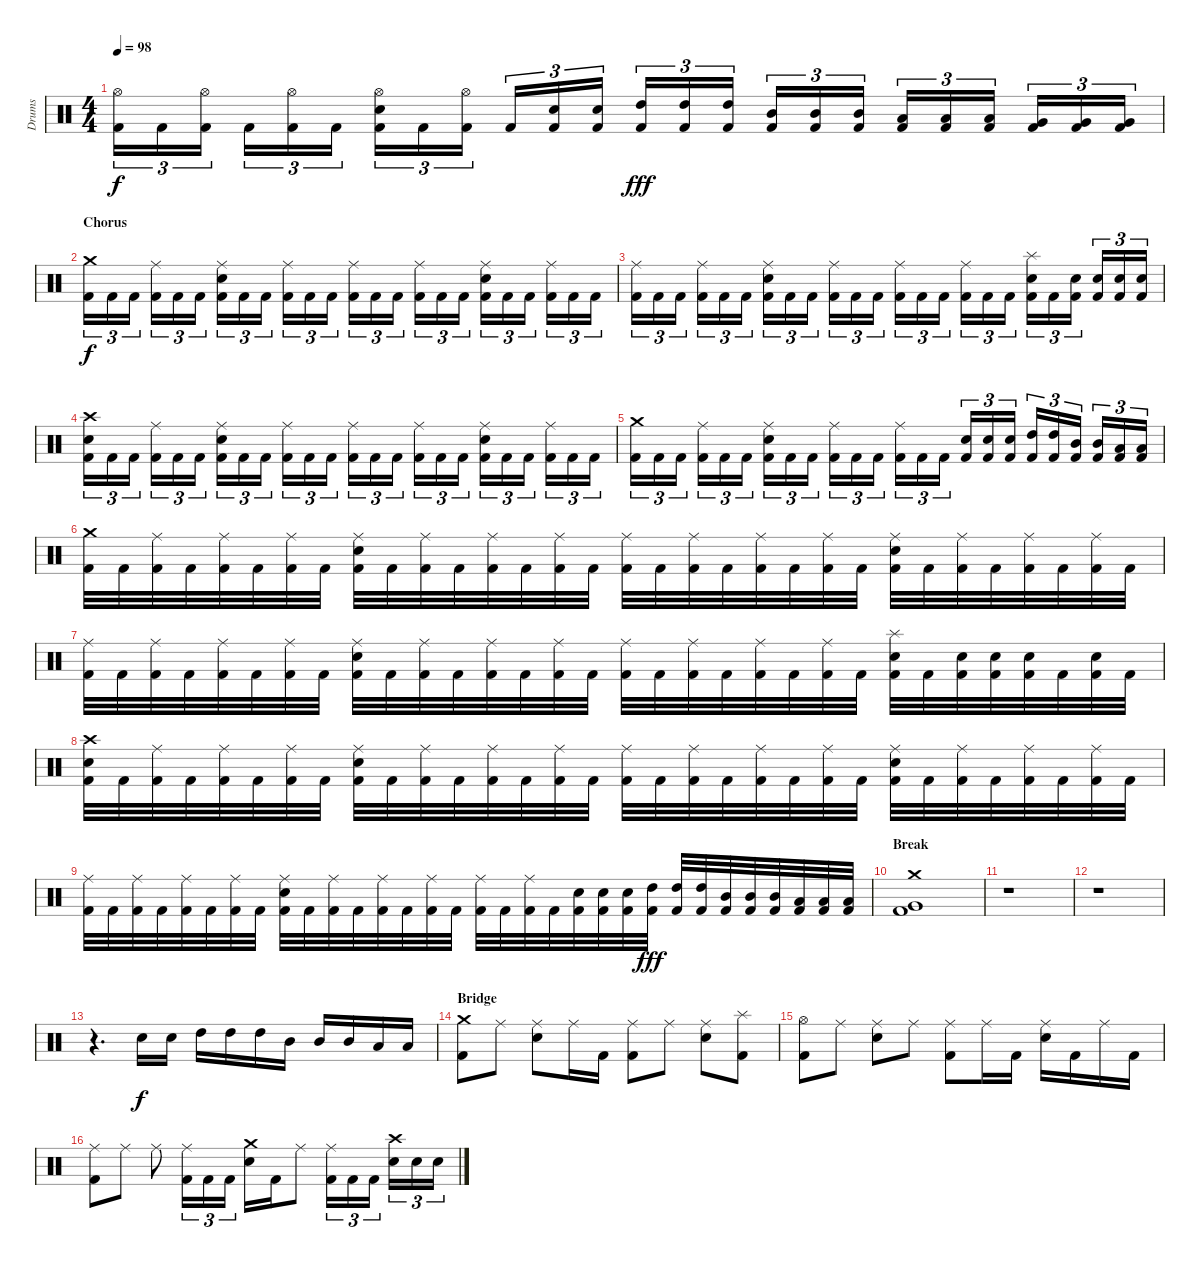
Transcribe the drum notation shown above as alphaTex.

\track ("Drums" "Drums") {instrument percussion}
\staff {score}
\articulation defaults
\ts (4 4)
\tempo 98
\clef neutral
\ks c
("Kick (hit) 2" "Hi-Hat (open)").16{tu (3 2) dy f} "Kick (hit) 2".16{tu (3 2)} ("Kick (hit) 2" "Hi-Hat (open)").16{tu (3 2)} "Kick (hit) 2".16{tu (3 2)} ("Kick (hit) 2" "Hi-Hat (open)").16{tu (3 2)} "Kick (hit) 2".16{tu (3 2)} ("Kick (hit) 2" "Electric Snare (hit)" "Hi-Hat (open)").16{tu (3 2)} "Kick (hit) 2".16{tu (3 2)} ("Kick (hit) 2" "Hi-Hat (open)").16{tu (3 2)} "Kick (hit) 2".16{tu (3 2)} ("Kick (hit) 2" "Electric Snare (hit)").16{tu (3 2)} ("Kick (hit) 2" "Electric Snare (hit)").16{tu (3 2)} ("Kick (hit) 2" "High Tom (hit)").16{tu (3 2) dy fff} ("Kick (hit) 2" "High Tom (hit)").16{tu (3 2)} ("Kick (hit) 2" "High Tom (hit)").16{tu (3 2)} ("Kick (hit) 2" "Mid Tom (hit)").16{tu (3 2)} ("Kick (hit) 2" "Mid Tom (hit)").16{tu (3 2)} ("Kick (hit) 2" "Mid Tom (hit)").16{tu (3 2)} ("Kick (hit) 2" "Low Tom (hit)").16{tu (3 2)} ("Kick (hit) 2" "Low Tom (hit)").16{tu (3 2)} ("Kick (hit) 2" "Low Tom (hit)").16{tu (3 2)} ("Kick (hit) 2" "Very Low Tom (hit)").16{tu (3 2)} ("Kick (hit) 2" "Very Low Tom (hit)").16{tu (3 2)} ("Kick (hit) 2" "Very Low Tom (hit)").16{tu (3 2)} |
\section ("" "Chorus")
("Kick (hit) 2" "Crash medium (hit)").16{tu (3 2) dy f} "Kick (hit) 2".16{tu (3 2)} "Kick (hit) 2".16{tu (3 2)} ("Kick (hit) 2" "Ride (middle)").16{tu (3 2)} "Kick (hit) 2".16{tu (3 2)} "Kick (hit) 2".16{tu (3 2)} ("Kick (hit) 2" "Electric Snare (hit)" "Ride (middle)").16{tu (3 2)} "Kick (hit) 2".16{tu (3 2)} "Kick (hit) 2".16{tu (3 2)} ("Kick (hit) 2" "Ride (middle)").16{tu (3 2)} "Kick (hit) 2".16{tu (3 2)} "Kick (hit) 2".16{tu (3 2)} ("Kick (hit) 2" "Ride (middle)").16{tu (3 2)} "Kick (hit) 2".16{tu (3 2)} "Kick (hit) 2".16{tu (3 2)} ("Kick (hit) 2" "Ride (middle)").16{tu (3 2)} "Kick (hit) 2".16{tu (3 2)} "Kick (hit) 2".16{tu (3 2)} ("Kick (hit) 2" "Electric Snare (hit)" "Ride (middle)").16{tu (3 2)} "Kick (hit) 2".16{tu (3 2)} "Kick (hit) 2".16{tu (3 2)} ("Kick (hit) 2" "Ride (middle)").16{tu (3 2)} "Kick (hit) 2".16{tu (3 2)} "Kick (hit) 2".16{tu (3 2)} |
("Kick (hit) 2" "Ride (middle)").16{tu (3 2)} "Kick (hit) 2".16{tu (3 2)} "Kick (hit) 2".16{tu (3 2)} ("Kick (hit) 2" "Ride (middle)").16{tu (3 2)} "Kick (hit) 2".16{tu (3 2)} "Kick (hit) 2".16{tu (3 2)} ("Kick (hit) 2" "Electric Snare (hit)" "Ride (middle)").16{tu (3 2)} "Kick (hit) 2".16{tu (3 2)} "Kick (hit) 2".16{tu (3 2)} ("Kick (hit) 2" "Ride (middle)").16{tu (3 2)} "Kick (hit) 2".16{tu (3 2)} "Kick (hit) 2".16{tu (3 2)} ("Kick (hit) 2" "Ride (middle)").16{tu (3 2)} "Kick (hit) 2".16{tu (3 2)} "Kick (hit) 2".16{tu (3 2)} ("Kick (hit) 2" "Ride (middle)").16{tu (3 2)} "Kick (hit) 2".16{tu (3 2)} "Kick (hit) 2".16{tu (3 2)} ("Kick (hit) 2" "Electric Snare (hit)" "Splash (hit)").16{tu (3 2)} "Kick (hit) 2".16{tu (3 2)} ("Kick (hit) 2" "Electric Snare (hit)").16{tu (3 2)} ("Kick (hit) 2" "Electric Snare (hit)").16{tu (3 2)} ("Kick (hit) 2" "Electric Snare (hit)").16{tu (3 2)} ("Kick (hit) 2" "Electric Snare (hit)").16{tu (3 2)} |
("Kick (hit) 2" "Electric Snare (hit)" "Crash high (hit)").16{tu (3 2)} "Kick (hit) 2".16{tu (3 2)} "Kick (hit) 2".16{tu (3 2)} ("Kick (hit) 2" "Ride (middle)").16{tu (3 2)} "Kick (hit) 2".16{tu (3 2)} "Kick (hit) 2".16{tu (3 2)} ("Kick (hit) 2" "Electric Snare (hit)" "Ride (middle)").16{tu (3 2)} "Kick (hit) 2".16{tu (3 2)} "Kick (hit) 2".16{tu (3 2)} ("Kick (hit) 2" "Ride (middle)").16{tu (3 2)} "Kick (hit) 2".16{tu (3 2)} "Kick (hit) 2".16{tu (3 2)} ("Kick (hit) 2" "Ride (middle)").16{tu (3 2)} "Kick (hit) 2".16{tu (3 2)} "Kick (hit) 2".16{tu (3 2)} ("Kick (hit) 2" "Ride (middle)").16{tu (3 2)} "Kick (hit) 2".16{tu (3 2)} "Kick (hit) 2".16{tu (3 2)} ("Kick (hit) 2" "Electric Snare (hit)" "Ride (middle)").16{tu (3 2)} "Kick (hit) 2".16{tu (3 2)} "Kick (hit) 2".16{tu (3 2)} ("Kick (hit) 2" "Ride (middle)").16{tu (3 2)} "Kick (hit) 2".16{tu (3 2)} "Kick (hit) 2".16{tu (3 2)} |
("Kick (hit) 2" "Crash medium (hit)").16{tu (3 2)} "Kick (hit) 2".16{tu (3 2)} "Kick (hit) 2".16{tu (3 2)} ("Kick (hit) 2" "Ride (middle)").16{tu (3 2)} "Kick (hit) 2".16{tu (3 2)} "Kick (hit) 2".16{tu (3 2)} ("Kick (hit) 2" "Electric Snare (hit)" "Ride (middle)").16{tu (3 2)} "Kick (hit) 2".16{tu (3 2)} "Kick (hit) 2".16{tu (3 2)} ("Kick (hit) 2" "Ride (middle)").16{tu (3 2)} "Kick (hit) 2".16{tu (3 2)} "Kick (hit) 2".16{tu (3 2)} ("Kick (hit) 2" "Ride (middle)").16{tu (3 2)} "Kick (hit) 2".16{tu (3 2)} "Kick (hit) 2".16{tu (3 2)} ("Kick (hit) 2" "Electric Snare (hit)").16{tu (3 2)} ("Kick (hit) 2" "Electric Snare (hit)").16{tu (3 2)} ("Kick (hit) 2" "Electric Snare (hit)").16{tu (3 2)} ("Kick (hit) 2" "High Tom (hit)").16{tu (3 2)} ("Kick (hit) 2" "High Tom (hit)").16{tu (3 2)} ("Kick (hit) 2" "Mid Tom (hit)").16{tu (3 2)} ("Kick (hit) 2" "Mid Tom (hit)").16{tu (3 2)} ("Kick (hit) 2" "Low Tom (hit)").16{tu (3 2)} ("Kick (hit) 2" "Low Tom (hit)").16{tu (3 2)} |
("Kick (hit) 2" "Crash medium (hit)").32 "Kick (hit) 2".32 ("Kick (hit) 2" "Ride (middle)").32 "Kick (hit) 2".32 ("Kick (hit) 2" "Ride (middle)").32 "Kick (hit) 2".32 ("Kick (hit) 2" "Ride (middle)").32 "Kick (hit) 2".32 ("Kick (hit) 2" "Electric Snare (hit)" "Ride (middle)").32 "Kick (hit) 2".32 ("Kick (hit) 2" "Ride (middle)").32 "Kick (hit) 2".32 ("Kick (hit) 2" "Ride (middle)").32 "Kick (hit) 2".32 ("Kick (hit) 2" "Ride (middle)").32 "Kick (hit) 2".32 ("Kick (hit) 2" "Ride (middle)").32 "Kick (hit) 2".32 ("Kick (hit) 2" "Ride (middle)").32 "Kick (hit) 2".32 ("Kick (hit) 2" "Ride (middle)").32 "Kick (hit) 2".32 ("Kick (hit) 2" "Ride (middle)").32 "Kick (hit) 2".32 ("Kick (hit) 2" "Electric Snare (hit)" "Ride (middle)").32 "Kick (hit) 2".32 ("Kick (hit) 2" "Ride (middle)").32 "Kick (hit) 2".32 ("Kick (hit) 2" "Ride (middle)").32 "Kick (hit) 2".32 ("Kick (hit) 2" "Ride (middle)").32 "Kick (hit) 2".32 |
("Kick (hit) 2" "Ride (middle)").32 "Kick (hit) 2".32 ("Kick (hit) 2" "Ride (middle)").32 "Kick (hit) 2".32 ("Kick (hit) 2" "Ride (middle)").32 "Kick (hit) 2".32 ("Kick (hit) 2" "Ride (middle)").32 "Kick (hit) 2".32 ("Kick (hit) 2" "Electric Snare (hit)" "Ride (middle)").32 "Kick (hit) 2".32 ("Kick (hit) 2" "Ride (middle)").32 "Kick (hit) 2".32 ("Kick (hit) 2" "Ride (middle)").32 "Kick (hit) 2".32 ("Kick (hit) 2" "Ride (middle)").32 "Kick (hit) 2".32 ("Kick (hit) 2" "Ride (middle)").32 "Kick (hit) 2".32 ("Kick (hit) 2" "Ride (middle)").32 "Kick (hit) 2".32 ("Kick (hit) 2" "Ride (middle)").32 "Kick (hit) 2".32 ("Kick (hit) 2" "Ride (middle)").32 "Kick (hit) 2".32 ("Kick (hit) 2" "Electric Snare (hit)" "Splash (hit)").32 "Kick (hit) 2".32 ("Kick (hit) 2" "Electric Snare (hit)").32 ("Kick (hit) 2" "Electric Snare (hit)").32 ("Kick (hit) 2" "Electric Snare (hit)").32 "Kick (hit) 2".32 ("Kick (hit) 2" "Electric Snare (hit)").32 "Kick (hit) 2".32 |
("Kick (hit) 2" "Electric Snare (hit)" "Crash high (hit)").32 "Kick (hit) 2".32 ("Kick (hit) 2" "Ride (middle)").32 "Kick (hit) 2".32 ("Kick (hit) 2" "Ride (middle)").32 "Kick (hit) 2".32 ("Kick (hit) 2" "Ride (middle)").32 "Kick (hit) 2".32 ("Kick (hit) 2" "Electric Snare (hit)" "Ride (middle)").32 "Kick (hit) 2".32 ("Kick (hit) 2" "Ride (middle)").32 "Kick (hit) 2".32 ("Kick (hit) 2" "Ride (middle)").32 "Kick (hit) 2".32 ("Kick (hit) 2" "Ride (middle)").32 "Kick (hit) 2".32 ("Kick (hit) 2" "Ride (middle)").32 "Kick (hit) 2".32 ("Kick (hit) 2" "Ride (middle)").32 "Kick (hit) 2".32 ("Kick (hit) 2" "Ride (middle)").32 "Kick (hit) 2".32 ("Kick (hit) 2" "Ride (middle)").32 "Kick (hit) 2".32 ("Kick (hit) 2" "Electric Snare (hit)" "Ride (middle)").32 "Kick (hit) 2".32 ("Kick (hit) 2" "Ride (middle)").32 "Kick (hit) 2".32 ("Kick (hit) 2" "Ride (middle)").32 "Kick (hit) 2".32 ("Kick (hit) 2" "Ride (middle)").32 "Kick (hit) 2".32 |
("Kick (hit) 2" "Ride (middle)").32 "Kick (hit) 2".32 ("Kick (hit) 2" "Ride (middle)").32 "Kick (hit) 2".32 ("Kick (hit) 2" "Ride (middle)").32 "Kick (hit) 2".32 ("Kick (hit) 2" "Ride (middle)").32 "Kick (hit) 2".32 ("Kick (hit) 2" "Electric Snare (hit)" "Ride (middle)").32 "Kick (hit) 2".32 ("Kick (hit) 2" "Ride (middle)").32 "Kick (hit) 2".32 ("Kick (hit) 2" "Ride (middle)").32 "Kick (hit) 2".32 ("Kick (hit) 2" "Ride (middle)").32 "Kick (hit) 2".32 ("Kick (hit) 2" "Ride (middle)").32 "Kick (hit) 2".32 ("Kick (hit) 2" "Ride (middle)").32 "Kick (hit) 2".32 ("Kick (hit) 2" "Electric Snare (hit)").32 ("Kick (hit) 2" "Electric Snare (hit)").32 ("Kick (hit) 2" "Electric Snare (hit)").32 ("Kick (hit) 2" "High Tom (hit)").32{dy fff} ("Kick (hit) 2" "High Tom (hit)").32 ("Kick (hit) 2" "High Tom (hit)").32 ("Kick (hit) 2" "Mid Tom (hit)").32 ("Kick (hit) 2" "Mid Tom (hit)").32 ("Kick (hit) 2" "Mid Tom (hit)").32 ("Kick (hit) 2" "Low Tom (hit)").32 ("Kick (hit) 2" "Low Tom (hit)").32 ("Kick (hit) 2" "Low Tom (hit)").32 |
\section ("" "Break")
("Kick (hit) 2" "Very Low Tom (hit)" "Crash medium (hit)").1 |
r.1 |
r.1 |
r.4{d} "Electric Snare (hit)".16{dy f} "Electric Snare (hit)".16 "High Tom (hit)".16 "High Tom (hit)".16 "High Tom (hit)".16 "Mid Tom (hit)".16 "Mid Tom (hit)".16 "Mid Tom (hit)".16 "Low Tom (hit)".16 "Low Tom (hit)".16 |
\section ("" "Bridge")
("Kick (hit) 2" "Crash medium (hit)").8 "Ride (middle)".8 ("Electric Snare (hit)" "Ride (middle)").8 "Ride (middle)".16 "Kick (hit) 2".16 ("Kick (hit) 2" "Ride (middle)").8 "Ride (middle)".8 ("Electric Snare (hit)" "Ride (middle)").8 ("Kick (hit) 2" "Splash (hit)").8 |
("Kick (hit) 2" "Hi-Hat (open)").8 "Ride (middle)".8 ("Electric Snare (hit)" "Ride (middle)").8 "Ride (middle)".8 ("Kick (hit) 2" "Ride (middle)").8 "Ride (middle)".16 "Kick (hit) 2".16 ("Electric Snare (hit)" "Ride (middle)").16 "Kick (hit) 2".16 "Ride (middle)".16 "Kick (hit) 2".16 |
("Kick (hit) 2" "Ride (middle)").8 "Ride (middle)".8 "Ride (middle)".8 ("Kick (hit) 2" "Ride (middle)").16{tu (3 2)} "Kick (hit) 2".16{tu (3 2)} "Kick (hit) 2".16{tu (3 2)} ("Electric Snare (hit)" "Crash medium (hit)").16 "Kick (hit) 2".16 "Ride (middle)".8 ("Kick (hit) 2" "Ride (middle)").16{tu (3 2)} "Kick (hit) 2".16{tu (3 2)} "Kick (hit) 2".16{tu (3 2)} ("Electric Snare (hit)" "Crash high (hit)").16{tu (3 2)} "Electric Snare (hit)".16{tu (3 2)} "Electric Snare (hit)".16{tu (3 2)}
